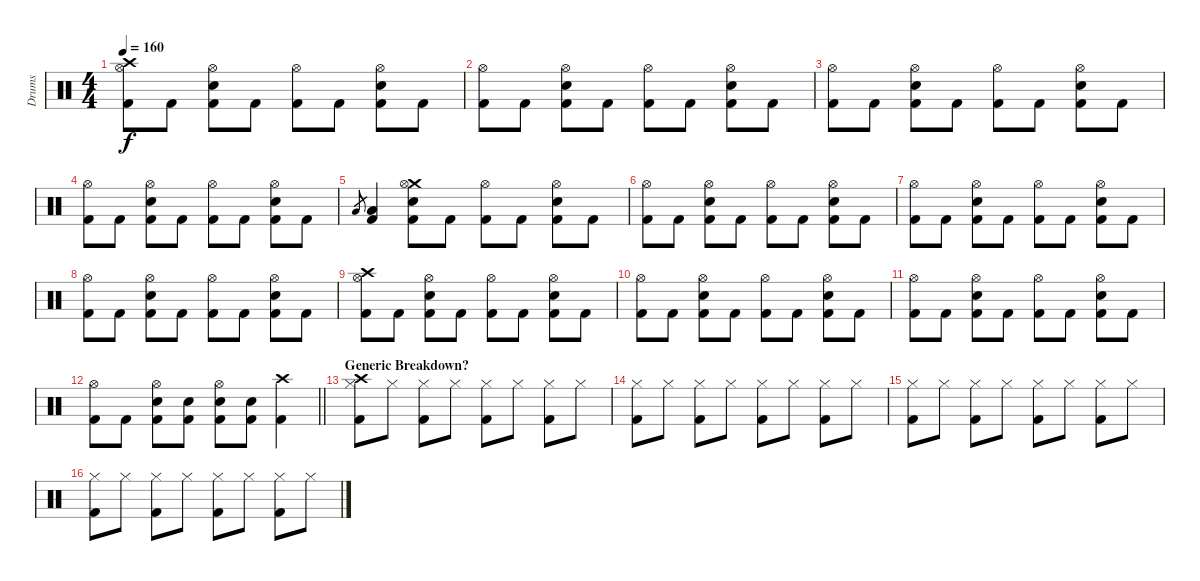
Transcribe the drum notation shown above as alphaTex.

\track ("Drums" "Drums") {instrument percussion}
\staff {score}
\articulation defaults
\ts (4 4)
\tempo 160
\clef neutral
\ks c
("Crash high (hit)" "Hi-Hat (open)" "Kick (hit) 2").8{dy f} "Kick (hit) 2".8 ("Hi-Hat (open)" "Snare (hit) 2" "Kick (hit) 2").8 "Kick (hit) 2".8 ("Hi-Hat (open)" "Kick (hit) 2").8 "Kick (hit) 2".8 ("Hi-Hat (open)" "Snare (hit) 2" "Kick (hit) 2").8 "Kick (hit) 2".8 |
("Hi-Hat (open)" "Kick (hit) 2").8 "Kick (hit) 2".8 ("Hi-Hat (open)" "Snare (hit) 2" "Kick (hit) 2").8 "Kick (hit) 2".8 ("Hi-Hat (open)" "Kick (hit) 2").8 "Kick (hit) 2".8 ("Hi-Hat (open)" "Snare (hit) 2" "Kick (hit) 2").8 "Kick (hit) 2".8 |
("Hi-Hat (open)" "Kick (hit) 2").8 "Kick (hit) 2".8 ("Hi-Hat (open)" "Snare (hit) 2" "Kick (hit) 2").8 "Kick (hit) 2".8 ("Hi-Hat (open)" "Kick (hit) 2").8 "Kick (hit) 2".8 ("Hi-Hat (open)" "Snare (hit) 2" "Kick (hit) 2").8 "Kick (hit) 2".8 |
("Hi-Hat (open)" "Kick (hit) 2").8 "Kick (hit) 2".8 ("Hi-Hat (open)" "Snare (hit) 2" "Kick (hit) 2").8 "Kick (hit) 2".8 ("Hi-Hat (open)" "Kick (hit) 2").8 "Kick (hit) 2".8 ("Hi-Hat (open)" "Snare (hit) 2" "Kick (hit) 2").8 "Kick (hit) 2".8 |
"Low Floor Tom (hit)".8{gr} ("Low Floor Tom (hit)" "Kick (hit) 2").4 ("Crash medium (hit)" "Hi-Hat (open)" "Snare (hit) 2" "Kick (hit) 2").8 "Kick (hit) 2".8 ("Hi-Hat (open)" "Kick (hit) 2").8 "Kick (hit) 2".8 ("Hi-Hat (open)" "Snare (hit) 2" "Kick (hit) 2").8 "Kick (hit) 2".8 |
("Hi-Hat (open)" "Kick (hit) 2").8 "Kick (hit) 2".8 ("Hi-Hat (open)" "Snare (hit) 2" "Kick (hit) 2").8 "Kick (hit) 2".8 ("Hi-Hat (open)" "Kick (hit) 2").8 "Kick (hit) 2".8 ("Hi-Hat (open)" "Snare (hit) 2" "Kick (hit) 2").8 "Kick (hit) 2".8 |
("Hi-Hat (open)" "Kick (hit) 2").8 "Kick (hit) 2".8 ("Hi-Hat (open)" "Snare (hit) 2" "Kick (hit) 2").8 "Kick (hit) 2".8 ("Hi-Hat (open)" "Kick (hit) 2").8 "Kick (hit) 2".8 ("Hi-Hat (open)" "Snare (hit) 2" "Kick (hit) 2").8 "Kick (hit) 2".8 |
("Hi-Hat (open)" "Kick (hit) 2").8 "Kick (hit) 2".8 ("Hi-Hat (open)" "Snare (hit) 2" "Kick (hit) 2").8 "Kick (hit) 2".8 ("Hi-Hat (open)" "Kick (hit) 2").8 "Kick (hit) 2".8 ("Hi-Hat (open)" "Snare (hit) 2" "Kick (hit) 2").8 "Kick (hit) 2".8 |
("Crash high (hit)" "Hi-Hat (open)" "Kick (hit) 2").8 "Kick (hit) 2".8 ("Hi-Hat (open)" "Snare (hit) 2" "Kick (hit) 2").8 "Kick (hit) 2".8 ("Hi-Hat (open)" "Kick (hit) 2").8 "Kick (hit) 2".8 ("Hi-Hat (open)" "Snare (hit) 2" "Kick (hit) 2").8 "Kick (hit) 2".8 |
("Hi-Hat (open)" "Kick (hit) 2").8 "Kick (hit) 2".8 ("Hi-Hat (open)" "Snare (hit) 2" "Kick (hit) 2").8 "Kick (hit) 2".8 ("Hi-Hat (open)" "Kick (hit) 2").8 "Kick (hit) 2".8 ("Hi-Hat (open)" "Snare (hit) 2" "Kick (hit) 2").8 "Kick (hit) 2".8 |
("Hi-Hat (open)" "Kick (hit) 2").8 "Kick (hit) 2".8 ("Hi-Hat (open)" "Snare (hit) 2" "Kick (hit) 2").8 "Kick (hit) 2".8 ("Hi-Hat (open)" "Kick (hit) 2").8 "Kick (hit) 2".8 ("Hi-Hat (open)" "Snare (hit) 2" "Kick (hit) 2").8 "Kick (hit) 2".8 |
\barLineRight lightlight
("Hi-Hat (open)" "Kick (hit) 2").8 "Kick (hit) 2".8 ("Hi-Hat (open)" "Snare (hit) 2" "Kick (hit) 2").8 ("Snare (hit) 2" "Kick (hit) 2").8 ("Hi-Hat (open)" "Snare (hit) 2" "Kick (hit) 2").8 ("Snare (hit) 2" "Kick (hit) 2").8 ("Crash high (hit)" "Kick (hit) 2").4 |
\section ("" "Generic Breakdown?")
("Crash high (hit)" "Hi-Hat (closed)" "Kick (hit) 2").8 "Hi-Hat (closed)".8 ("Hi-Hat (closed)" "Kick (hit) 2").8 "Hi-Hat (closed)".8 ("Hi-Hat (closed)" "Kick (hit) 2").8 "Hi-Hat (closed)".8 ("Hi-Hat (closed)" "Kick (hit) 2").8 "Hi-Hat (closed)".8 |
("Hi-Hat (closed)" "Kick (hit) 2").8 "Hi-Hat (closed)".8 ("Hi-Hat (closed)" "Kick (hit) 2").8 "Hi-Hat (closed)".8 ("Hi-Hat (closed)" "Kick (hit) 2").8 "Hi-Hat (closed)".8 ("Hi-Hat (closed)" "Kick (hit) 2").8 "Hi-Hat (closed)".8 |
("Hi-Hat (closed)" "Kick (hit) 2").8 "Hi-Hat (closed)".8 ("Hi-Hat (closed)" "Kick (hit) 2").8 "Hi-Hat (closed)".8 ("Hi-Hat (closed)" "Kick (hit) 2").8 "Hi-Hat (closed)".8 ("Hi-Hat (closed)" "Kick (hit) 2").8 "Hi-Hat (closed)".8 |
("Hi-Hat (closed)" "Kick (hit) 2").8 "Hi-Hat (closed)".8 ("Hi-Hat (closed)" "Kick (hit) 2").8 "Hi-Hat (closed)".8 ("Hi-Hat (closed)" "Kick (hit) 2").8 "Hi-Hat (closed)".8 ("Hi-Hat (closed)" "Kick (hit) 2").8 "Hi-Hat (closed)".8
